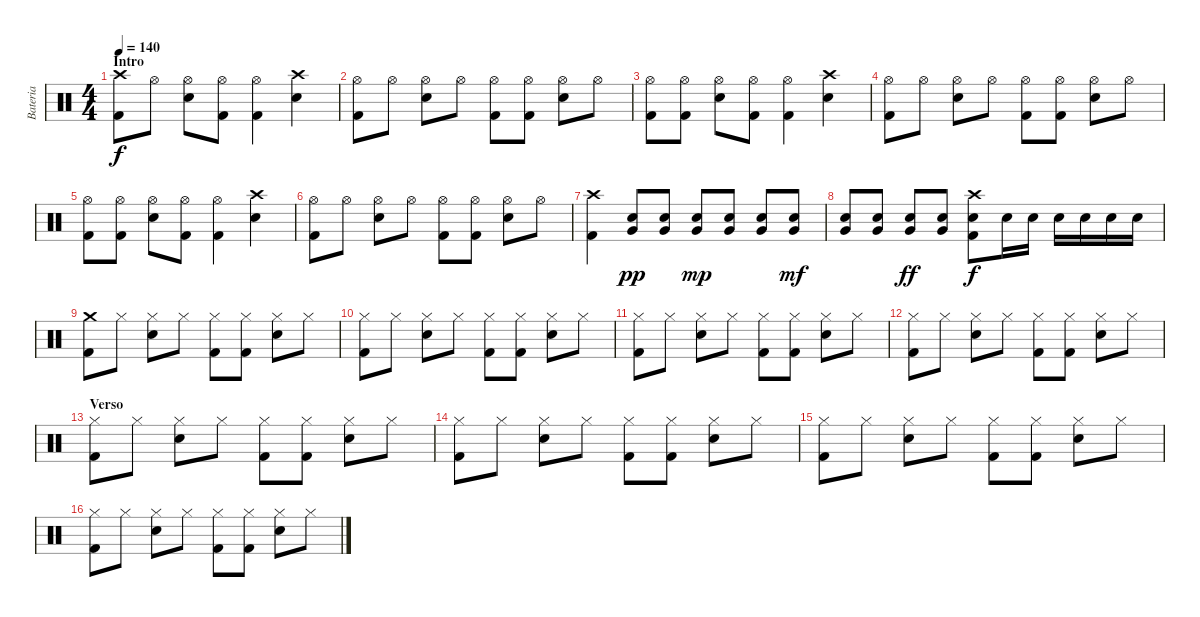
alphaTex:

\track ("Bateria" "Bateria") {instrument percussion}
\staff {score}
\articulation defaults
\ts (4 4)
\section ("" "Intro")
\tempo 140
\clef neutral
\ks c
("Crash high (hit)" "Kick (hit) 2").8{dy f} "Hi-Hat (open)".8 ("Hi-Hat (open)" "Electric Snare (hit)").8 ("Hi-Hat (open)" "Kick (hit) 2").8 ("Hi-Hat (open)" "Kick (hit) 2").4 ("Crash high (hit)" "Electric Snare (hit)").4 |
("Hi-Hat (open)" "Kick (hit) 2").8 "Hi-Hat (open)".8 ("Hi-Hat (open)" "Electric Snare (hit)").8 "Hi-Hat (open)".8 ("Hi-Hat (open)" "Kick (hit) 2").8 ("Hi-Hat (open)" "Kick (hit) 2").8 ("Hi-Hat (open)" "Electric Snare (hit)").8 "Hi-Hat (open)".8 |
("Hi-Hat (open)" "Kick (hit) 2").8 ("Hi-Hat (open)" "Kick (hit) 2").8 ("Hi-Hat (open)" "Electric Snare (hit)").8 ("Hi-Hat (open)" "Kick (hit) 2").8 ("Hi-Hat (open)" "Kick (hit) 2").4 ("Crash high (hit)" "Electric Snare (hit)").4 |
("Hi-Hat (open)" "Kick (hit) 2").8 "Hi-Hat (open)".8 ("Hi-Hat (open)" "Electric Snare (hit)").8 "Hi-Hat (open)".8 ("Hi-Hat (open)" "Kick (hit) 2").8 ("Hi-Hat (open)" "Kick (hit) 2").8 ("Hi-Hat (open)" "Electric Snare (hit)").8 "Hi-Hat (open)".8 |
("Hi-Hat (open)" "Kick (hit) 2").8 ("Hi-Hat (open)" "Kick (hit) 2").8 ("Hi-Hat (open)" "Electric Snare (hit)").8 ("Hi-Hat (open)" "Kick (hit) 2").8 ("Hi-Hat (open)" "Kick (hit) 2").4 ("Crash high (hit)" "Electric Snare (hit)").4 |
("Hi-Hat (open)" "Kick (hit) 2").8 "Hi-Hat (open)".8 ("Hi-Hat (open)" "Electric Snare (hit)").8 "Hi-Hat (open)".8 ("Hi-Hat (open)" "Kick (hit) 2").8 ("Hi-Hat (open)" "Kick (hit) 2").8 ("Hi-Hat (open)" "Electric Snare (hit)").8 "Hi-Hat (open)".8 |
("Crash high (hit)" "Kick (hit) 2").4 ("Electric Snare (hit)" "Very Low Tom (hit)").8{dy pp} ("Electric Snare (hit)" "Very Low Tom (hit)").8 ("Electric Snare (hit)" "Very Low Tom (hit)").8{dy mp} ("Electric Snare (hit)" "Very Low Tom (hit)").8 ("Electric Snare (hit)" "Very Low Tom (hit)").8 ("Electric Snare (hit)" "Very Low Tom (hit)").8{dy mf} |
("Electric Snare (hit)" "Very Low Tom (hit)").8 ("Electric Snare (hit)" "Very Low Tom (hit)").8 ("Electric Snare (hit)" "Very Low Tom (hit)").8{dy ff} ("Electric Snare (hit)" "Very Low Tom (hit)").8 ("Crash high (hit)" "Electric Snare (hit)" "Kick (hit) 2").8{dy f} "Electric Snare (hit)".16 "Electric Snare (hit)".16 "Electric Snare (hit)".16 "Electric Snare (hit)".16 "Electric Snare (hit)".16 "Electric Snare (hit)".16 |
("Crash medium (hit)" "Kick (hit) 2").8 "Hi-Hat (closed)".8 ("Hi-Hat (closed)" "Electric Snare (hit)").8 "Hi-Hat (closed)".8 ("Hi-Hat (closed)" "Kick (hit) 2").8 ("Hi-Hat (closed)" "Kick (hit) 2").8 ("Hi-Hat (closed)" "Electric Snare (hit)").8 "Hi-Hat (closed)".8 |
("Hi-Hat (closed)" "Kick (hit) 2").8 "Hi-Hat (closed)".8 ("Hi-Hat (closed)" "Electric Snare (hit)").8 "Hi-Hat (closed)".8 ("Hi-Hat (closed)" "Kick (hit) 2").8 ("Hi-Hat (closed)" "Kick (hit) 2").8 ("Hi-Hat (closed)" "Electric Snare (hit)").8 "Hi-Hat (closed)".8 |
("Hi-Hat (closed)" "Kick (hit) 2").8 "Hi-Hat (closed)".8 ("Hi-Hat (closed)" "Electric Snare (hit)").8 "Hi-Hat (closed)".8 ("Hi-Hat (closed)" "Kick (hit) 2").8 ("Hi-Hat (closed)" "Kick (hit) 2").8 ("Hi-Hat (closed)" "Electric Snare (hit)").8 "Hi-Hat (closed)".8 |
("Hi-Hat (closed)" "Kick (hit) 2").8 "Hi-Hat (closed)".8 ("Hi-Hat (closed)" "Electric Snare (hit)").8 "Hi-Hat (closed)".8 ("Hi-Hat (closed)" "Kick (hit) 2").8 ("Hi-Hat (closed)" "Kick (hit) 2").8 ("Hi-Hat (closed)" "Electric Snare (hit)").8 "Hi-Hat (closed)".8 |
\section ("" "Verso")
("Hi-Hat (closed)" "Kick (hit) 2").8 "Hi-Hat (closed)".8 ("Hi-Hat (closed)" "Electric Snare (hit)").8 "Hi-Hat (closed)".8 ("Hi-Hat (closed)" "Kick (hit) 2").8 ("Hi-Hat (closed)" "Kick (hit) 2").8 ("Hi-Hat (closed)" "Electric Snare (hit)").8 "Hi-Hat (closed)".8 |
("Hi-Hat (closed)" "Kick (hit) 2").8 "Hi-Hat (closed)".8 ("Hi-Hat (closed)" "Electric Snare (hit)").8 "Hi-Hat (closed)".8 ("Hi-Hat (closed)" "Kick (hit) 2").8 ("Hi-Hat (closed)" "Kick (hit) 2").8 ("Hi-Hat (closed)" "Electric Snare (hit)").8 "Hi-Hat (closed)".8 |
("Hi-Hat (closed)" "Kick (hit) 2").8 "Hi-Hat (closed)".8 ("Hi-Hat (closed)" "Electric Snare (hit)").8 "Hi-Hat (closed)".8 ("Hi-Hat (closed)" "Kick (hit) 2").8 ("Hi-Hat (closed)" "Kick (hit) 2").8 ("Hi-Hat (closed)" "Electric Snare (hit)").8 "Hi-Hat (closed)".8 |
("Hi-Hat (closed)" "Kick (hit) 2").8 "Hi-Hat (closed)".8 ("Hi-Hat (closed)" "Electric Snare (hit)").8 "Hi-Hat (closed)".8 ("Hi-Hat (closed)" "Kick (hit) 2").8 ("Hi-Hat (closed)" "Kick (hit) 2").8 ("Hi-Hat (closed)" "Electric Snare (hit)").8 "Hi-Hat (closed)".8
